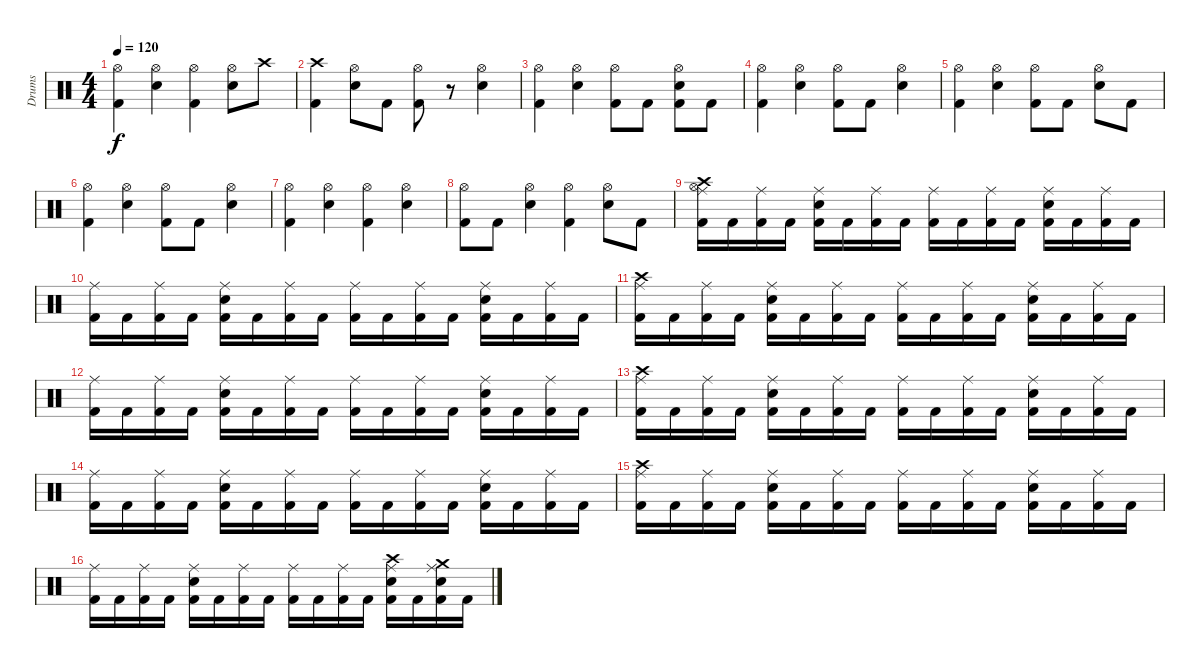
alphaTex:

\track ("Drums" "Drums") {instrument percussion}
\staff {score}
\articulation defaults
\ts (4 4)
\tempo 120
\clef neutral
\ks c
("Hi-Hat (open)" "Kick (hit) 2").4{dy f} ("Hi-Hat (open)" "Electric Snare (hit)").4 ("Hi-Hat (open)" "Kick (hit) 2").4 ("Hi-Hat (open)" "Electric Snare (hit)").8 "Crash high (hit)".8 |
("Crash high (hit)" "Kick (hit) 2").4 ("Hi-Hat (open)" "Electric Snare (hit)").8 "Kick (hit) 2".8 ("Hi-Hat (open)" "Kick (hit) 2").8 r.8 ("Hi-Hat (open)" "Electric Snare (hit)").4 |
("Hi-Hat (open)" "Kick (hit) 2").4 ("Hi-Hat (open)" "Electric Snare (hit)").4 ("Hi-Hat (open)" "Kick (hit) 2").8 "Kick (hit) 2".8 ("Hi-Hat (open)" "Electric Snare (hit)" "Kick (hit) 2").8 "Kick (hit) 2".8 |
("Hi-Hat (open)" "Kick (hit) 2").4 ("Hi-Hat (open)" "Electric Snare (hit)").4 ("Hi-Hat (open)" "Kick (hit) 2").8 "Kick (hit) 2".8 ("Hi-Hat (open)" "Electric Snare (hit)").4 |
("Hi-Hat (open)" "Kick (hit) 2").4 ("Hi-Hat (open)" "Electric Snare (hit)").4 ("Hi-Hat (open)" "Kick (hit) 2").8 "Kick (hit) 2".8 ("Hi-Hat (open)" "Electric Snare (hit)").8 "Kick (hit) 2".8 |
("Hi-Hat (open)" "Kick (hit) 2").4 ("Hi-Hat (open)" "Electric Snare (hit)").4 ("Hi-Hat (open)" "Kick (hit) 2").8 "Kick (hit) 2".8 ("Hi-Hat (open)" "Electric Snare (hit)").4 |
("Hi-Hat (open)" "Kick (hit) 2").4 ("Hi-Hat (open)" "Electric Snare (hit)").4 ("Hi-Hat (open)" "Kick (hit) 2").4 ("Hi-Hat (open)" "Electric Snare (hit)").4 |
("Hi-Hat (open)" "Kick (hit) 2").8 "Kick (hit) 2".8 ("Hi-Hat (open)" "Electric Snare (hit)").4 ("Hi-Hat (open)" "Kick (hit) 2").4 ("Hi-Hat (open)" "Electric Snare (hit)").8 "Kick (hit) 2".8 |
("Hi-Hat (open)" "Crash high (hit)" "Ride (middle)" "Kick (hit) 2").16 "Kick (hit) 2".16 ("Ride (middle)" "Kick (hit) 2").16 "Kick (hit) 2".16 ("Electric Snare (hit)" "Ride (middle)" "Kick (hit) 2").16 "Kick (hit) 2".16 ("Ride (middle)" "Kick (hit) 2").16 "Kick (hit) 2".16 ("Ride (middle)" "Kick (hit) 2").16 "Kick (hit) 2".16 ("Ride (middle)" "Kick (hit) 2").16 "Kick (hit) 2".16 ("Electric Snare (hit)" "Ride (middle)" "Kick (hit) 2").16 "Kick (hit) 2".16 ("Ride (middle)" "Kick (hit) 2").16 "Kick (hit) 2".16 |
("Ride (middle)" "Kick (hit) 2").16 "Kick (hit) 2".16 ("Ride (middle)" "Kick (hit) 2").16 "Kick (hit) 2".16 ("Electric Snare (hit)" "Ride (middle)" "Kick (hit) 2").16 "Kick (hit) 2".16 ("Ride (middle)" "Kick (hit) 2").16 "Kick (hit) 2".16 ("Ride (middle)" "Kick (hit) 2").16 "Kick (hit) 2".16 ("Ride (middle)" "Kick (hit) 2").16 "Kick (hit) 2".16 ("Electric Snare (hit)" "Ride (middle)" "Kick (hit) 2").16 "Kick (hit) 2".16 ("Ride (middle)" "Kick (hit) 2").16 "Kick (hit) 2".16 |
("Crash high (hit)" "Ride (middle)" "Kick (hit) 2").16 "Kick (hit) 2".16 ("Ride (middle)" "Kick (hit) 2").16 "Kick (hit) 2".16 ("Electric Snare (hit)" "Ride (middle)" "Kick (hit) 2").16 "Kick (hit) 2".16 ("Ride (middle)" "Kick (hit) 2").16 "Kick (hit) 2".16 ("Ride (middle)" "Kick (hit) 2").16 "Kick (hit) 2".16 ("Ride (middle)" "Kick (hit) 2").16 "Kick (hit) 2".16 ("Electric Snare (hit)" "Ride (middle)" "Kick (hit) 2").16 "Kick (hit) 2".16 ("Ride (middle)" "Kick (hit) 2").16 "Kick (hit) 2".16 |
("Ride (middle)" "Kick (hit) 2").16 "Kick (hit) 2".16 ("Ride (middle)" "Kick (hit) 2").16 "Kick (hit) 2".16 ("Electric Snare (hit)" "Ride (middle)" "Kick (hit) 2").16 "Kick (hit) 2".16 ("Ride (middle)" "Kick (hit) 2").16 "Kick (hit) 2".16 ("Ride (middle)" "Kick (hit) 2").16 "Kick (hit) 2".16 ("Ride (middle)" "Kick (hit) 2").16 "Kick (hit) 2".16 ("Electric Snare (hit)" "Ride (middle)" "Kick (hit) 2").16 "Kick (hit) 2".16 ("Ride (middle)" "Kick (hit) 2").16 "Kick (hit) 2".16 |
("Crash high (hit)" "Ride (middle)" "Kick (hit) 2").16 "Kick (hit) 2".16 ("Ride (middle)" "Kick (hit) 2").16 "Kick (hit) 2".16 ("Electric Snare (hit)" "Ride (middle)" "Kick (hit) 2").16 "Kick (hit) 2".16 ("Ride (middle)" "Kick (hit) 2").16 "Kick (hit) 2".16 ("Ride (middle)" "Kick (hit) 2").16 "Kick (hit) 2".16 ("Ride (middle)" "Kick (hit) 2").16 "Kick (hit) 2".16 ("Electric Snare (hit)" "Ride (middle)" "Kick (hit) 2").16 "Kick (hit) 2".16 ("Ride (middle)" "Kick (hit) 2").16 "Kick (hit) 2".16 |
("Ride (middle)" "Kick (hit) 2").16 "Kick (hit) 2".16 ("Ride (middle)" "Kick (hit) 2").16 "Kick (hit) 2".16 ("Electric Snare (hit)" "Ride (middle)" "Kick (hit) 2").16 "Kick (hit) 2".16 ("Ride (middle)" "Kick (hit) 2").16 "Kick (hit) 2".16 ("Ride (middle)" "Kick (hit) 2").16 "Kick (hit) 2".16 ("Ride (middle)" "Kick (hit) 2").16 "Kick (hit) 2".16 ("Electric Snare (hit)" "Ride (middle)" "Kick (hit) 2").16 "Kick (hit) 2".16 ("Ride (middle)" "Kick (hit) 2").16 "Kick (hit) 2".16 |
("Crash high (hit)" "Ride (middle)" "Kick (hit) 2").16 "Kick (hit) 2".16 ("Ride (middle)" "Kick (hit) 2").16 "Kick (hit) 2".16 ("Electric Snare (hit)" "Ride (middle)" "Kick (hit) 2").16 "Kick (hit) 2".16 ("Ride (middle)" "Kick (hit) 2").16 "Kick (hit) 2".16 ("Ride (middle)" "Kick (hit) 2").16 "Kick (hit) 2".16 ("Ride (middle)" "Kick (hit) 2").16 "Kick (hit) 2".16 ("Electric Snare (hit)" "Ride (middle)" "Kick (hit) 2").16 "Kick (hit) 2".16 ("Ride (middle)" "Kick (hit) 2").16 "Kick (hit) 2".16 |
("Ride (middle)" "Kick (hit) 2").16 "Kick (hit) 2".16 ("Ride (middle)" "Kick (hit) 2").16 "Kick (hit) 2".16 ("Electric Snare (hit)" "Ride (middle)" "Kick (hit) 2").16 "Kick (hit) 2".16 ("Ride (middle)" "Kick (hit) 2").16 "Kick (hit) 2".16 ("Ride (middle)" "Kick (hit) 2").16 "Kick (hit) 2".16 ("Ride (middle)" "Kick (hit) 2").16 "Kick (hit) 2".16 ("Crash high (hit)" "Electric Snare (hit)" "Ride (middle)" "Kick (hit) 2").16 "Kick (hit) 2".16 ("Crash medium (hit)" "Electric Snare (hit)" "Ride (middle)" "Kick (hit) 2").16 "Kick (hit) 2".16
